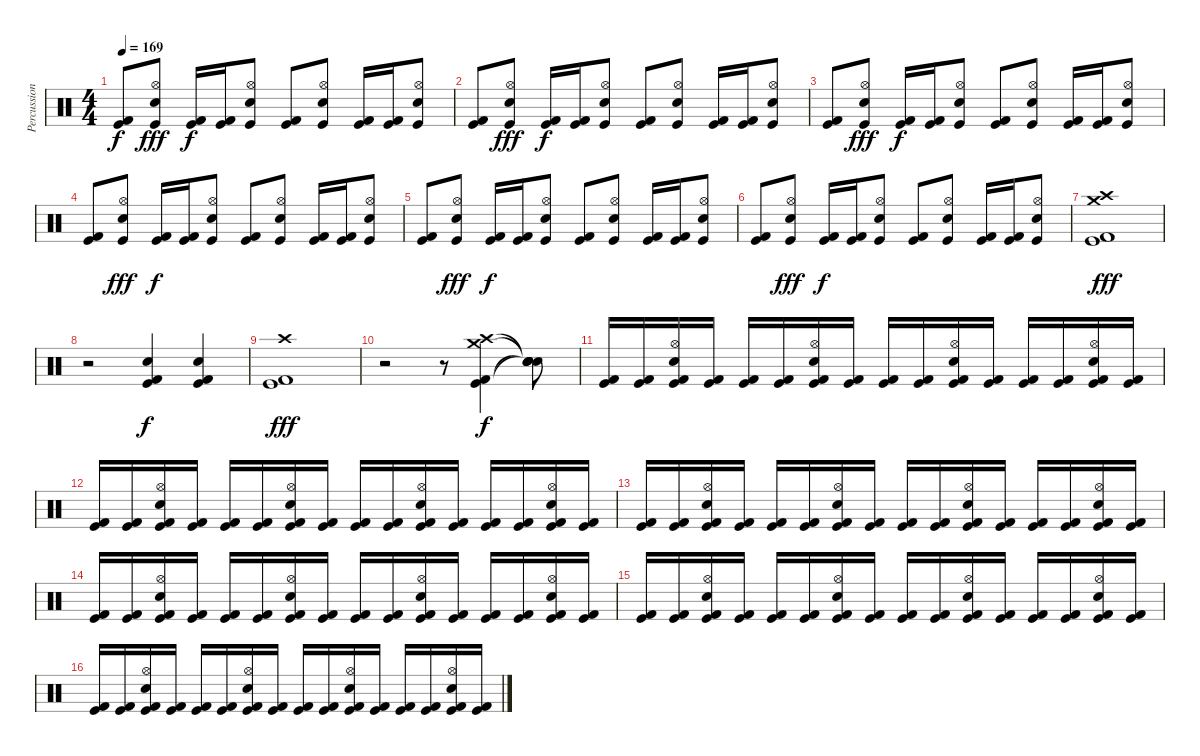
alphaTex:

\track ("Percussion" "Percussion") {instrument percussion}
\staff {score}
\articulation defaults
\ts (4 4)
\tempo 169
\clef neutral
\ks c
("Kick (hit) 2" "Kick (hit)").8{dy f} ("Hi-Hat (open)" "Electric Snare (hit)" "Kick (hit)").8{dy fff} ("Kick (hit) 2" "Kick (hit)").16{dy f} ("Kick (hit) 2" "Kick (hit)").16 ("Hi-Hat (open)" "Electric Snare (hit)" "Kick (hit)").8 ("Kick (hit) 2" "Kick (hit)").8 ("Hi-Hat (open)" "Electric Snare (hit)" "Kick (hit)").8 ("Kick (hit) 2" "Kick (hit)").16 ("Kick (hit) 2" "Kick (hit)").16 ("Hi-Hat (open)" "Electric Snare (hit)" "Kick (hit)").8 |
("Kick (hit) 2" "Kick (hit)").8 ("Hi-Hat (open)" "Electric Snare (hit)" "Kick (hit)").8{dy fff} ("Kick (hit) 2" "Kick (hit)").16{dy f} ("Kick (hit) 2" "Kick (hit)").16 ("Hi-Hat (open)" "Electric Snare (hit)" "Kick (hit)").8 ("Kick (hit) 2" "Kick (hit)").8 ("Hi-Hat (open)" "Electric Snare (hit)" "Kick (hit)").8 ("Kick (hit) 2" "Kick (hit)").16 ("Kick (hit) 2" "Kick (hit)").16 ("Hi-Hat (open)" "Electric Snare (hit)" "Kick (hit)").8 |
("Kick (hit) 2" "Kick (hit)").8 ("Hi-Hat (open)" "Electric Snare (hit)" "Kick (hit)").8{dy fff} ("Kick (hit) 2" "Kick (hit)").16{dy f} ("Kick (hit) 2" "Kick (hit)").16 ("Hi-Hat (open)" "Electric Snare (hit)" "Kick (hit)").8 ("Kick (hit) 2" "Kick (hit)").8 ("Hi-Hat (open)" "Electric Snare (hit)" "Kick (hit)").8 ("Kick (hit) 2" "Kick (hit)").16 ("Kick (hit) 2" "Kick (hit)").16 ("Hi-Hat (open)" "Electric Snare (hit)" "Kick (hit)").8 |
("Kick (hit) 2" "Kick (hit)").8 ("Hi-Hat (open)" "Electric Snare (hit)" "Kick (hit)").8{dy fff} ("Kick (hit) 2" "Kick (hit)").16{dy f} ("Kick (hit) 2" "Kick (hit)").16 ("Hi-Hat (open)" "Electric Snare (hit)" "Kick (hit)").8 ("Kick (hit) 2" "Kick (hit)").8 ("Hi-Hat (open)" "Electric Snare (hit)" "Kick (hit)").8 ("Kick (hit) 2" "Kick (hit)").16 ("Kick (hit) 2" "Kick (hit)").16 ("Hi-Hat (open)" "Electric Snare (hit)" "Kick (hit)").8 |
("Kick (hit) 2" "Kick (hit)").8 ("Hi-Hat (open)" "Electric Snare (hit)" "Kick (hit)").8{dy fff} ("Kick (hit) 2" "Kick (hit)").16{dy f} ("Kick (hit) 2" "Kick (hit)").16 ("Hi-Hat (open)" "Electric Snare (hit)" "Kick (hit)").8 ("Kick (hit) 2" "Kick (hit)").8 ("Hi-Hat (open)" "Electric Snare (hit)" "Kick (hit)").8 ("Kick (hit) 2" "Kick (hit)").16 ("Kick (hit) 2" "Kick (hit)").16 ("Hi-Hat (open)" "Electric Snare (hit)" "Kick (hit)").8 |
("Kick (hit) 2" "Kick (hit)").8 ("Hi-Hat (open)" "Electric Snare (hit)" "Kick (hit)").8{dy fff} ("Kick (hit) 2" "Kick (hit)").16{dy f} ("Kick (hit) 2" "Kick (hit)").16 ("Hi-Hat (open)" "Electric Snare (hit)" "Kick (hit)").8 ("Kick (hit) 2" "Kick (hit)").8 ("Hi-Hat (open)" "Electric Snare (hit)" "Kick (hit)").8 ("Kick (hit) 2" "Kick (hit)").16 ("Kick (hit) 2" "Kick (hit)").16 ("Hi-Hat (open)" "Electric Snare (hit)" "Kick (hit)").8 |
("Crash high (hit)" "Crash medium (hit)" "Kick (hit) 2" "Kick (hit)").1{dy fff} |
r.2 ("Electric Snare (hit)" "Kick (hit) 2" "Kick (hit)").4{dy f} ("Electric Snare (hit)" "Kick (hit) 2" "Kick (hit)").4 |
("Crash high (hit)" "Kick (hit) 2" "Kick (hit)").1{dy fff} |
r.2 r.8 ("Crash medium (hit)" "Crash high (hit)" "Kick (hit) 2" "Kick (hit)").4{dy f} ("Snare (hit)"{t} "Snare (hit)"{t} "Snare (hit)"{t} "Snare (hit)"{t}).8 |
("Kick (hit) 2" "Kick (hit)").16 ("Kick (hit) 2" "Kick (hit)").16 ("Hi-Hat (open)" "Electric Snare (hit)" "Kick (hit) 2" "Kick (hit)").16 ("Kick (hit) 2" "Kick (hit)").16 ("Kick (hit) 2" "Kick (hit)").16 ("Kick (hit) 2" "Kick (hit)").16 ("Hi-Hat (open)" "Electric Snare (hit)" "Kick (hit) 2" "Kick (hit)").16 ("Kick (hit) 2" "Kick (hit)").16 ("Kick (hit) 2" "Kick (hit)").16 ("Kick (hit) 2" "Kick (hit)").16 ("Hi-Hat (open)" "Electric Snare (hit)" "Kick (hit) 2" "Kick (hit)").16 ("Kick (hit) 2" "Kick (hit)").16 ("Kick (hit) 2" "Kick (hit)").16 ("Kick (hit) 2" "Kick (hit)").16 ("Hi-Hat (open)" "Electric Snare (hit)" "Kick (hit) 2" "Kick (hit)").16 ("Kick (hit) 2" "Kick (hit)").16 |
("Kick (hit) 2" "Kick (hit)").16 ("Kick (hit) 2" "Kick (hit)").16 ("Hi-Hat (open)" "Electric Snare (hit)" "Kick (hit) 2" "Kick (hit)").16 ("Kick (hit) 2" "Kick (hit)").16 ("Kick (hit) 2" "Kick (hit)").16 ("Kick (hit) 2" "Kick (hit)").16 ("Hi-Hat (open)" "Electric Snare (hit)" "Kick (hit) 2" "Kick (hit)").16 ("Kick (hit) 2" "Kick (hit)").16 ("Kick (hit) 2" "Kick (hit)").16 ("Kick (hit) 2" "Kick (hit)").16 ("Hi-Hat (open)" "Electric Snare (hit)" "Kick (hit) 2" "Kick (hit)").16 ("Kick (hit) 2" "Kick (hit)").16 ("Kick (hit) 2" "Kick (hit)").16 ("Kick (hit) 2" "Kick (hit)").16 ("Hi-Hat (open)" "Electric Snare (hit)" "Kick (hit) 2" "Kick (hit)").16 ("Kick (hit) 2" "Kick (hit)").16 |
("Kick (hit) 2" "Kick (hit)").16 ("Kick (hit) 2" "Kick (hit)").16 ("Hi-Hat (open)" "Electric Snare (hit)" "Kick (hit) 2" "Kick (hit)").16 ("Kick (hit) 2" "Kick (hit)").16 ("Kick (hit) 2" "Kick (hit)").16 ("Kick (hit) 2" "Kick (hit)").16 ("Hi-Hat (open)" "Electric Snare (hit)" "Kick (hit) 2" "Kick (hit)").16 ("Kick (hit) 2" "Kick (hit)").16 ("Kick (hit) 2" "Kick (hit)").16 ("Kick (hit) 2" "Kick (hit)").16 ("Hi-Hat (open)" "Electric Snare (hit)" "Kick (hit) 2" "Kick (hit)").16 ("Kick (hit) 2" "Kick (hit)").16 ("Kick (hit) 2" "Kick (hit)").16 ("Kick (hit) 2" "Kick (hit)").16 ("Hi-Hat (open)" "Electric Snare (hit)" "Kick (hit) 2" "Kick (hit)").16 ("Kick (hit) 2" "Kick (hit)").16 |
("Kick (hit) 2" "Kick (hit)").16 ("Kick (hit) 2" "Kick (hit)").16 ("Hi-Hat (open)" "Electric Snare (hit)" "Kick (hit) 2" "Kick (hit)").16 ("Kick (hit) 2" "Kick (hit)").16 ("Kick (hit) 2" "Kick (hit)").16 ("Kick (hit) 2" "Kick (hit)").16 ("Hi-Hat (open)" "Electric Snare (hit)" "Kick (hit) 2" "Kick (hit)").16 ("Kick (hit) 2" "Kick (hit)").16 ("Kick (hit) 2" "Kick (hit)").16 ("Kick (hit) 2" "Kick (hit)").16 ("Hi-Hat (open)" "Electric Snare (hit)" "Kick (hit) 2" "Kick (hit)").16 ("Kick (hit) 2" "Kick (hit)").16 ("Kick (hit) 2" "Kick (hit)").16 ("Kick (hit) 2" "Kick (hit)").16 ("Hi-Hat (open)" "Electric Snare (hit)" "Kick (hit) 2" "Kick (hit)").16 ("Kick (hit) 2" "Kick (hit)").16 |
("Kick (hit) 2" "Kick (hit)").16 ("Kick (hit) 2" "Kick (hit)").16 ("Hi-Hat (open)" "Electric Snare (hit)" "Kick (hit) 2" "Kick (hit)").16 ("Kick (hit) 2" "Kick (hit)").16 ("Kick (hit) 2" "Kick (hit)").16 ("Kick (hit) 2" "Kick (hit)").16 ("Hi-Hat (open)" "Electric Snare (hit)" "Kick (hit) 2" "Kick (hit)").16 ("Kick (hit) 2" "Kick (hit)").16 ("Kick (hit) 2" "Kick (hit)").16 ("Kick (hit) 2" "Kick (hit)").16 ("Hi-Hat (open)" "Electric Snare (hit)" "Kick (hit) 2" "Kick (hit)").16 ("Kick (hit) 2" "Kick (hit)").16 ("Kick (hit) 2" "Kick (hit)").16 ("Kick (hit) 2" "Kick (hit)").16 ("Hi-Hat (open)" "Electric Snare (hit)" "Kick (hit) 2" "Kick (hit)").16 ("Kick (hit) 2" "Kick (hit)").16 |
("Kick (hit) 2" "Kick (hit)").16 ("Kick (hit) 2" "Kick (hit)").16 ("Hi-Hat (open)" "Electric Snare (hit)" "Kick (hit) 2" "Kick (hit)").16 ("Kick (hit) 2" "Kick (hit)").16 ("Kick (hit) 2" "Kick (hit)").16 ("Kick (hit) 2" "Kick (hit)").16 ("Hi-Hat (open)" "Electric Snare (hit)" "Kick (hit) 2" "Kick (hit)").16 ("Kick (hit) 2" "Kick (hit)").16 ("Kick (hit) 2" "Kick (hit)").16 ("Kick (hit) 2" "Kick (hit)").16 ("Hi-Hat (open)" "Electric Snare (hit)" "Kick (hit) 2" "Kick (hit)").16 ("Kick (hit) 2" "Kick (hit)").16 ("Kick (hit) 2" "Kick (hit)").16 ("Kick (hit) 2" "Kick (hit)").16 ("Hi-Hat (open)" "Electric Snare (hit)" "Kick (hit) 2" "Kick (hit)").16 ("Kick (hit) 2" "Kick (hit)").16
